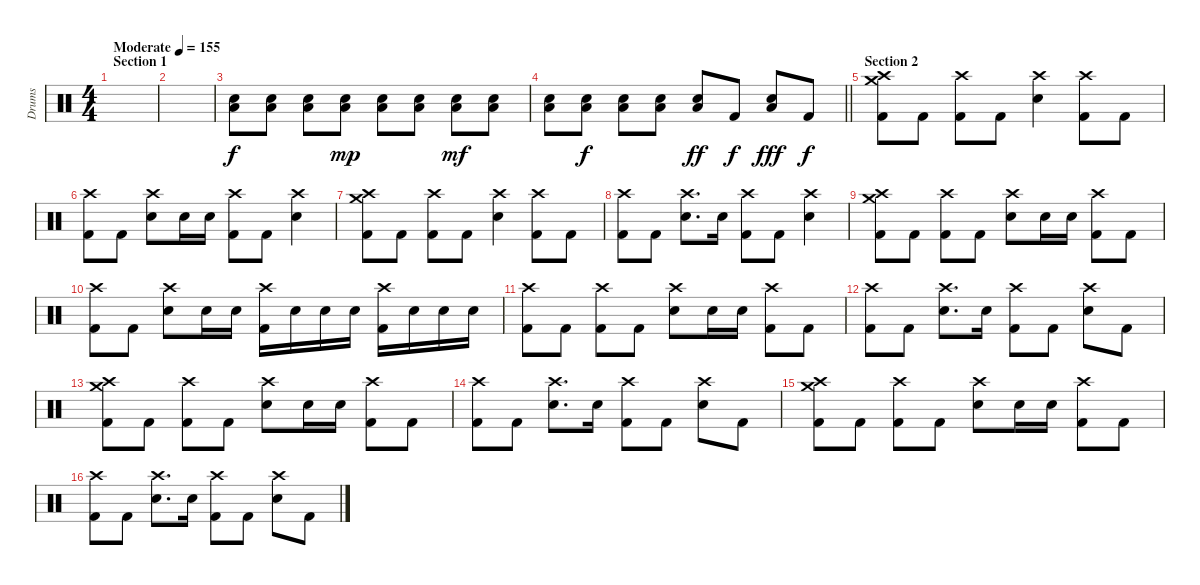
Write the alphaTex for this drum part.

\track ("Drums" "Drums") {instrument percussion}
\staff {score}
\articulation defaults
\ts (4 4)
\section ("" "Section 1")
\tempo (155 "Moderate")
\clef neutral
\ks c
|
|
("Low Floor Tom (hit)" "Electric Snare (hit)").8 ("Low Floor Tom (hit)" "Electric Snare (hit)").8 ("Low Floor Tom (hit)" "Electric Snare (hit)").8 ("Low Floor Tom (hit)" "Electric Snare (hit)").8{dy mp} ("Low Floor Tom (hit)" "Electric Snare (hit)").8 ("Low Floor Tom (hit)" "Electric Snare (hit)").8 ("Low Floor Tom (hit)" "Electric Snare (hit)").8{dy mf} ("Low Floor Tom (hit)" "Electric Snare (hit)").8 |
\barLineRight lightlight
("Low Floor Tom (hit)" "Electric Snare (hit)").8 ("Low Floor Tom (hit)" "Electric Snare (hit)").8{dy f} ("Low Floor Tom (hit)" "Electric Snare (hit)").8 ("Low Floor Tom (hit)" "Electric Snare (hit)").8 ("Low Floor Tom (hit)" "Electric Snare (hit)").8{dy ff} "Kick (hit) 2".8{dy f} ("Low Floor Tom (hit)" "Electric Snare (hit)").8{dy fff} "Kick (hit) 2".8{dy f} |
\section ("" "Section 2")
("Crash high (hit)" "Crash medium (hit)" "Kick (hit) 2").8 "Kick (hit) 2".8 ("Crash high (hit)" "Kick (hit) 2").8 "Kick (hit) 2".8 ("Crash high (hit)" "Electric Snare (hit)").4 ("Crash high (hit)" "Kick (hit) 2").8 "Kick (hit) 2".8 |
("Crash high (hit)" "Kick (hit) 2").8 "Kick (hit) 2".8 ("Crash high (hit)" "Electric Snare (hit)").8 "Electric Snare (hit)".16 "Electric Snare (hit)".16 ("Crash high (hit)" "Kick (hit) 2").8 "Kick (hit) 2".8 ("Crash high (hit)" "Electric Snare (hit)").4 |
("Crash high (hit)" "Crash medium (hit)" "Kick (hit) 2").8 "Kick (hit) 2".8 ("Crash high (hit)" "Kick (hit) 2").8 "Kick (hit) 2".8 ("Crash high (hit)" "Electric Snare (hit)").4 ("Crash high (hit)" "Kick (hit) 2").8 "Kick (hit) 2".8 |
("Crash high (hit)" "Kick (hit) 2").8 "Kick (hit) 2".8 ("Crash high (hit)" "Electric Snare (hit)").8{d} "Electric Snare (hit)".16 ("Crash high (hit)" "Kick (hit) 2").8 "Kick (hit) 2".8 ("Crash high (hit)" "Electric Snare (hit)").4 |
("Crash high (hit)" "Crash medium (hit)" "Kick (hit) 2").8 "Kick (hit) 2".8 ("Crash high (hit)" "Kick (hit) 2").8 "Kick (hit) 2".8 ("Crash high (hit)" "Electric Snare (hit)").8 "Electric Snare (hit)".16 "Electric Snare (hit)".16 ("Crash high (hit)" "Kick (hit) 2").8 "Kick (hit) 2".8 |
("Crash high (hit)" "Kick (hit) 2").8 "Kick (hit) 2".8 ("Crash high (hit)" "Electric Snare (hit)").8 "Electric Snare (hit)".16 "Electric Snare (hit)".16 ("Crash high (hit)" "Kick (hit) 2").16 "Electric Snare (hit)".16 "Electric Snare (hit)".16 "Electric Snare (hit)".16 ("Crash high (hit)" "Kick (hit) 2").16 "Electric Snare (hit)".16 "Electric Snare (hit)".16 "Electric Snare (hit)".16 |
("Crash high (hit)" "Kick (hit) 2").8 "Kick (hit) 2".8 ("Crash high (hit)" "Kick (hit) 2").8 "Kick (hit) 2".8 ("Crash high (hit)" "Electric Snare (hit)").8 "Electric Snare (hit)".16 "Electric Snare (hit)".16 ("Crash high (hit)" "Kick (hit) 2").8 "Kick (hit) 2".8 |
("Crash high (hit)" "Kick (hit) 2").8 "Kick (hit) 2".8 ("Crash high (hit)" "Electric Snare (hit)").8{d} "Electric Snare (hit)".16 ("Crash high (hit)" "Kick (hit) 2").8 "Kick (hit) 2".8 ("Crash high (hit)" "Electric Snare (hit)").8 "Kick (hit) 2".8 |
("Crash high (hit)" "Crash medium (hit)" "Kick (hit) 2").8 "Kick (hit) 2".8 ("Crash high (hit)" "Kick (hit) 2").8 "Kick (hit) 2".8 ("Crash high (hit)" "Electric Snare (hit)").8 "Electric Snare (hit)".16 "Electric Snare (hit)".16 ("Crash high (hit)" "Kick (hit) 2").8 "Kick (hit) 2".8 |
("Crash high (hit)" "Kick (hit) 2").8 "Kick (hit) 2".8 ("Crash high (hit)" "Electric Snare (hit)").8{d} "Electric Snare (hit)".16 ("Crash high (hit)" "Kick (hit) 2").8 "Kick (hit) 2".8 ("Crash high (hit)" "Electric Snare (hit)").8 "Kick (hit) 2".8 |
("Crash high (hit)" "Crash medium (hit)" "Kick (hit) 2").8 "Kick (hit) 2".8 ("Crash high (hit)" "Kick (hit) 2").8 "Kick (hit) 2".8 ("Crash high (hit)" "Electric Snare (hit)").8 "Electric Snare (hit)".16 "Electric Snare (hit)".16 ("Crash high (hit)" "Kick (hit) 2").8 "Kick (hit) 2".8 |
("Crash high (hit)" "Kick (hit) 2").8 "Kick (hit) 2".8 ("Crash high (hit)" "Electric Snare (hit)").8{d} "Electric Snare (hit)".16 ("Crash high (hit)" "Kick (hit) 2").8 "Kick (hit) 2".8 ("Crash high (hit)" "Electric Snare (hit)").8 "Kick (hit) 2".8
